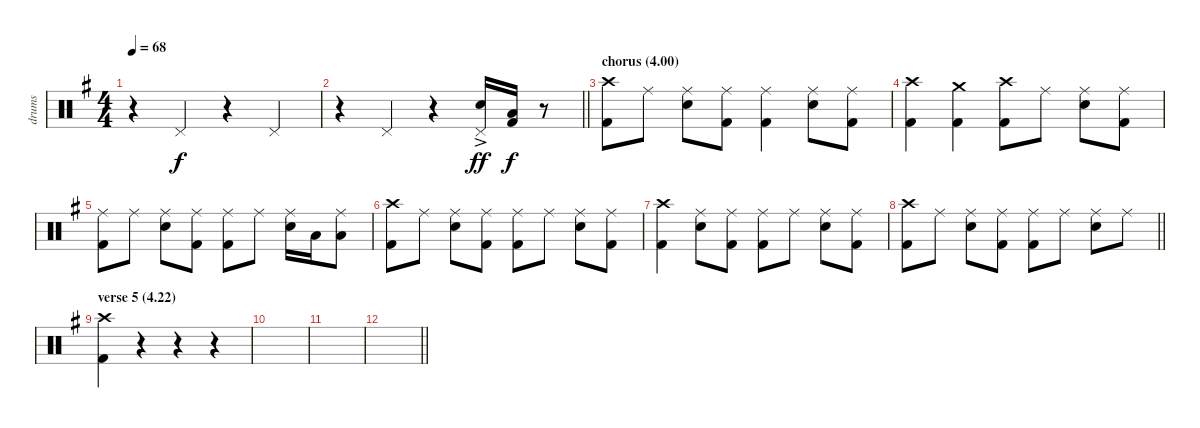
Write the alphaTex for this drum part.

\track ("drums" "drums") {instrument percussion}
\staff {score}
\articulation defaults
\ts (4 4)
\tempo 68
\clef neutral
\ks g
r.4{dy f} "Pedal Hi-Hat (hit)".4 r.4 "Pedal Hi-Hat (hit)".4 |
\barLineRight lightlight
r.4 "Pedal Hi-Hat (hit)".4 r.4 ("Pedal Hi-Hat (hit)" "Snare (hit) 2"{ac}).16{dy ff} ("Low Tom (hit)" "Kick (hit) 2").16{dy f} r.8 |
\section ("" "chorus (4.00)")
("Crash high (hit)" "Kick (hit) 2").8 "Ride (middle)".8 ("Ride (middle)" "Electric Snare (hit)").8 ("Ride (middle)" "Kick (hit) 2").8 ("Ride (middle)" "Kick (hit) 2").4 ("Ride (middle)" "Electric Snare (hit)").8 ("Ride (middle)" "Kick (hit) 2").8 |
("Crash high (hit)" "Kick (hit) 2").4 ("Crash medium (hit)" "Kick (hit) 2").4 ("Crash high (hit)" "Kick (hit) 2").8 "Ride (middle)".8 ("Ride (middle)" "Electric Snare (hit)").8 ("Ride (middle)" "Kick (hit) 2").8 |
("Ride (middle)" "Kick (hit) 2").8 "Ride (middle)".8 ("Ride (middle)" "Electric Snare (hit)").8 ("Ride (middle)" "Kick (hit) 2").8 ("Ride (middle)" "Kick (hit) 2").8 "Ride (middle)".8 ("Ride (middle)" "Electric Snare (hit)").16 "Low Tom (hit)".16 ("Ride (middle)" "Low Tom (hit)").8 |
("Crash high (hit)" "Kick (hit) 2").8 "Ride (middle)".8 ("Ride (middle)" "Electric Snare (hit)").8 ("Ride (middle)" "Kick (hit) 2").8 ("Ride (middle)" "Kick (hit) 2").8 "Ride (middle)".8 ("Ride (middle)" "Electric Snare (hit)").8 ("Ride (middle)" "Kick (hit) 2").8 |
("Crash high (hit)" "Kick (hit) 2").4 ("Ride (middle)" "Electric Snare (hit)").8 ("Ride (middle)" "Kick (hit) 2").8 ("Ride (middle)" "Kick (hit) 2").8 "Ride (middle)".8 ("Ride (middle)" "Electric Snare (hit)").8 ("Ride (middle)" "Kick (hit) 2").8 |
\barLineRight lightlight
("Crash high (hit)" "Kick (hit) 2").8 "Ride (middle)".8 ("Ride (middle)" "Electric Snare (hit)").8 ("Ride (middle)" "Kick (hit) 2").8 ("Ride (middle)" "Kick (hit) 2").8 "Ride (middle)".8 ("Ride (middle)" "Electric Snare (hit)").8 "Ride (middle)".8 |
\section ("" "verse 5 (4.22)")
("Crash high (hit)" "Kick (hit) 2").4 r.4 r.4 r.4 |
|
|
\barLineRight lightlight
